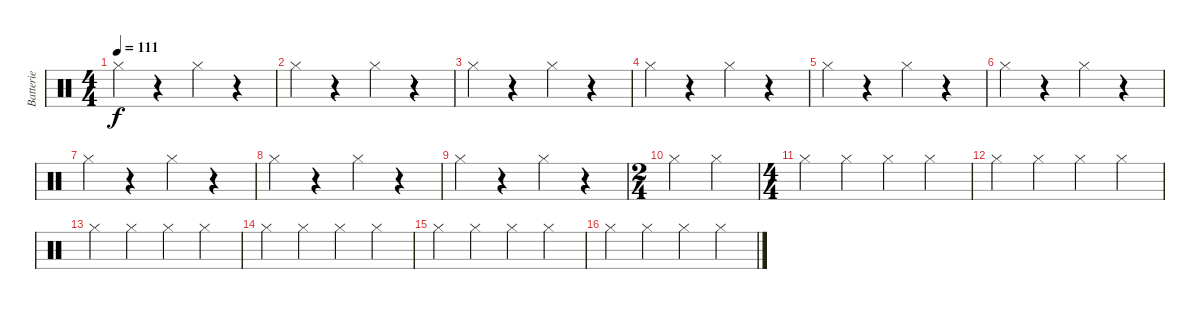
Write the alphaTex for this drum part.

\track ("Batterie" "Batterie") {instrument percussion}
\staff {score}
\articulation defaults
\ts (4 4)
\tempo 111
\clef neutral
\ks c "Hi-Hat (closed)".4{dy f}
r.4 "Hi-Hat (closed)".4 r.4 |
"Hi-Hat (closed)".4 r.4 "Hi-Hat (closed)".4 r.4 |
"Hi-Hat (closed)".4 r.4 "Hi-Hat (closed)".4 r.4 |
"Hi-Hat (closed)".4 r.4 "Hi-Hat (closed)".4 r.4 |
"Hi-Hat (closed)".4 r.4 "Hi-Hat (closed)".4 r.4 |
"Hi-Hat (closed)".4 r.4 "Hi-Hat (closed)".4 r.4 |
"Hi-Hat (closed)".4 r.4 "Hi-Hat (closed)".4 r.4 |
"Hi-Hat (closed)".4 r.4 "Hi-Hat (closed)".4 r.4 |
"Hi-Hat (closed)".4 r.4 "Hi-Hat (closed)".4 r.4 |
\ts (2 4)
"Hi-Hat (closed)".4 "Hi-Hat (closed)".4 |
\ts (4 4)
"Hi-Hat (closed)".4 "Hi-Hat (closed)".4 "Hi-Hat (closed)".4 "Hi-Hat (closed)".4 |
"Hi-Hat (closed)".4 "Hi-Hat (closed)".4 "Hi-Hat (closed)".4 "Hi-Hat (closed)".4 |
"Hi-Hat (closed)".4 "Hi-Hat (closed)".4 "Hi-Hat (closed)".4 "Hi-Hat (closed)".4 |
"Hi-Hat (closed)".4 "Hi-Hat (closed)".4 "Hi-Hat (closed)".4 "Hi-Hat (closed)".4 |
"Hi-Hat (closed)".4 "Hi-Hat (closed)".4 "Hi-Hat (closed)".4 "Hi-Hat (closed)".4 |
"Hi-Hat (closed)".4 "Hi-Hat (closed)".4 "Hi-Hat (closed)".4 "Hi-Hat (closed)".4
